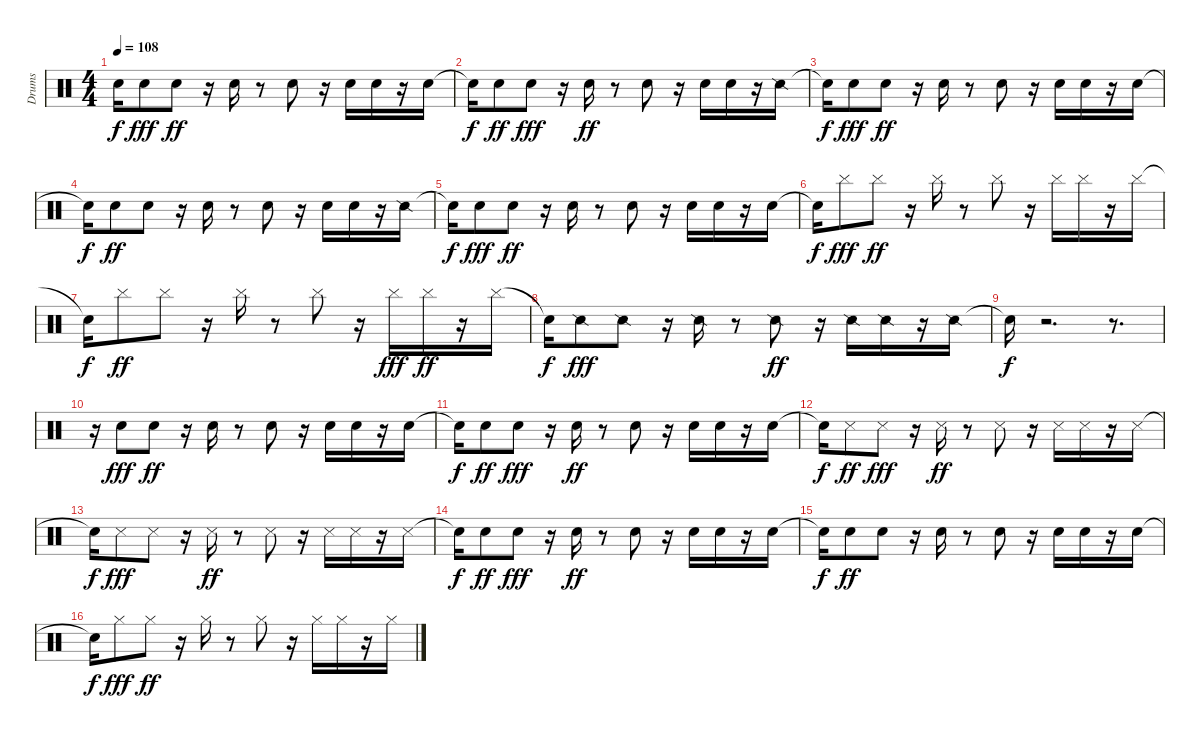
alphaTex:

\track ("Drums" "Drums") {instrument percussion}
\staff {score}
\articulation defaults
\ts (4 4)
\tempo 108
\clef neutral
\ks c "Snare (hit)"{t}.16{dy f} "Hand Clap (hit)".8{dy fff} "Hand Clap (hit)".8{dy ff}
r.16 "Hand Clap (hit)".16 r.8 "Hand Clap (hit)".8 r.16 "Hand Clap (hit)".16 "Hand Clap (hit)".16 r.16 "Hand Clap (hit)".16 |
"Snare (hit)"{t}.16{dy f} "Metronome (bell)".8{dy ff} "Metronome (bell)".8{dy fff} r.16 "Metronome (bell)".16{dy ff} r.8 "Metronome (bell)".8 r.16 "Metronome (bell)".16 "Metronome (bell)".16 r.16 "Snare (side stick) 2".16 |
"Snare (hit)"{t}.16{dy f} "Metronome (bell)".8{dy fff} "Metronome (bell)".8{dy ff} r.16 "Metronome (bell)".16 r.8 "Metronome (bell)".8 r.16 "Metronome (bell)".16 "Metronome (bell)".16 r.16 "Metronome (bell)".16 |
"Snare (hit)"{t}.16{dy f} "Metronome (bell)".8{dy ff} "Metronome (bell)".8 r.16 "Metronome (bell)".16 r.8 "Metronome (bell)".8 r.16 "Metronome (bell)".16 "Metronome (bell)".16 r.16 "Snare (side stick) 2".16 |
"Snare (hit)"{t}.16{dy f} "Metronome (bell)".8{dy fff} "Metronome (bell)".8{dy ff} r.16 "Metronome (bell)".16 r.8 "Metronome (bell)".8 r.16 "Metronome (bell)".16 "Metronome (bell)".16 r.16 "Metronome (bell)".16 |
"Snare (hit)"{t}.16{dy f} "Cymbal (hit)".8{dy fff} "Cymbal (hit)".8{dy ff} r.16 "Cymbal (hit)".16 r.8 "Cymbal (hit)".8 r.16 "Cymbal (hit)".16 "Cymbal (hit)".16 r.16 "Cymbal (hit)".16 |
"Snare (hit)"{t}.16{dy f} "Cymbal (hit)".8{dy ff} "Cymbal (hit)".8 r.16 "Cymbal (hit)".16 r.8 "Cymbal (hit)".8 r.16 "Cymbal (hit)".16{dy fff} "Cymbal (hit)".16{dy ff} r.16 "Cymbal (hit)".16 |
"Snare (hit)"{t}.16{dy f} "Snare (side stick) 2".8{dy fff} "Snare (side stick) 2".8 r.16 "Snare (side stick) 2".16 r.8 "Snare (side stick) 2".8{dy ff} r.16 "Snare (side stick) 2".16 "Snare (side stick) 2".16 r.16 "Snare (side stick) 2".16 |
"Snare (hit)"{t}.16{dy f} r.2{d} r.8{d} |
r.16 "Metronome (bell)".8{dy fff} "Metronome (bell)".8{dy ff} r.16 "Metronome (bell)".16 r.8 "Metronome (bell)".8 r.16 "Metronome (bell)".16 "Metronome (bell)".16 r.16 "Metronome (bell)".16 |
"Snare (hit)"{t}.16{dy f} "Metronome (bell)".8{dy ff} "Metronome (bell)".8{dy fff} r.16 "Metronome (bell)".16{dy ff} r.8 "Metronome (bell)".8 r.16 "Metronome (bell)".16 "Metronome (bell)".16 r.16 "Metronome (bell)".16 |
"Snare (hit)"{t}.16{dy f} "Snare (side stick) 3".8{dy ff} "Snare (side stick) 3".8{dy fff} r.16 "Snare (side stick) 3".16{dy ff} r.8 "Snare (side stick) 3".8 r.16 "Snare (side stick) 3".16 "Snare (side stick) 3".16 r.16 "Snare (side stick) 3".16 |
"Snare (hit)"{t}.16{dy f} "Snare (side stick) 3".8{dy fff} "Snare (side stick) 3".8 r.16 "Snare (side stick) 3".16{dy ff} r.8 "Snare (side stick) 3".8 r.16 "Snare (side stick) 3".16 "Snare (side stick) 3".16 r.16 "Snare (side stick) 3".16 |
"Snare (hit)"{t}.16{dy f} "Hand Clap (hit)".8{dy ff} "Hand Clap (hit)".8{dy fff} r.16 "Hand Clap (hit)".16{dy ff} r.8 "Hand Clap (hit)".8 r.16 "Hand Clap (hit)".16 "Hand Clap (hit)".16 r.16 "Hand Clap (hit)".16 |
"Snare (hit)"{t}.16{dy f} "Hand Clap (hit)".8{dy ff} "Hand Clap (hit)".8 r.16 "Hand Clap (hit)".16 r.8 "Hand Clap (hit)".8 r.16 "Hand Clap (hit)".16 "Hand Clap (hit)".16 r.16 "Hand Clap (hit)".16 |
"Snare (hit)"{t}.16{dy f} "Hi-Hat (closed)".8{dy fff} "Hi-Hat (closed)".8{dy ff} r.16 "Hi-Hat (closed)".16 r.8 "Hi-Hat (closed)".8 r.16 "Hi-Hat (closed)".16 "Hi-Hat (closed)".16 r.16 "Hi-Hat (closed)".16
